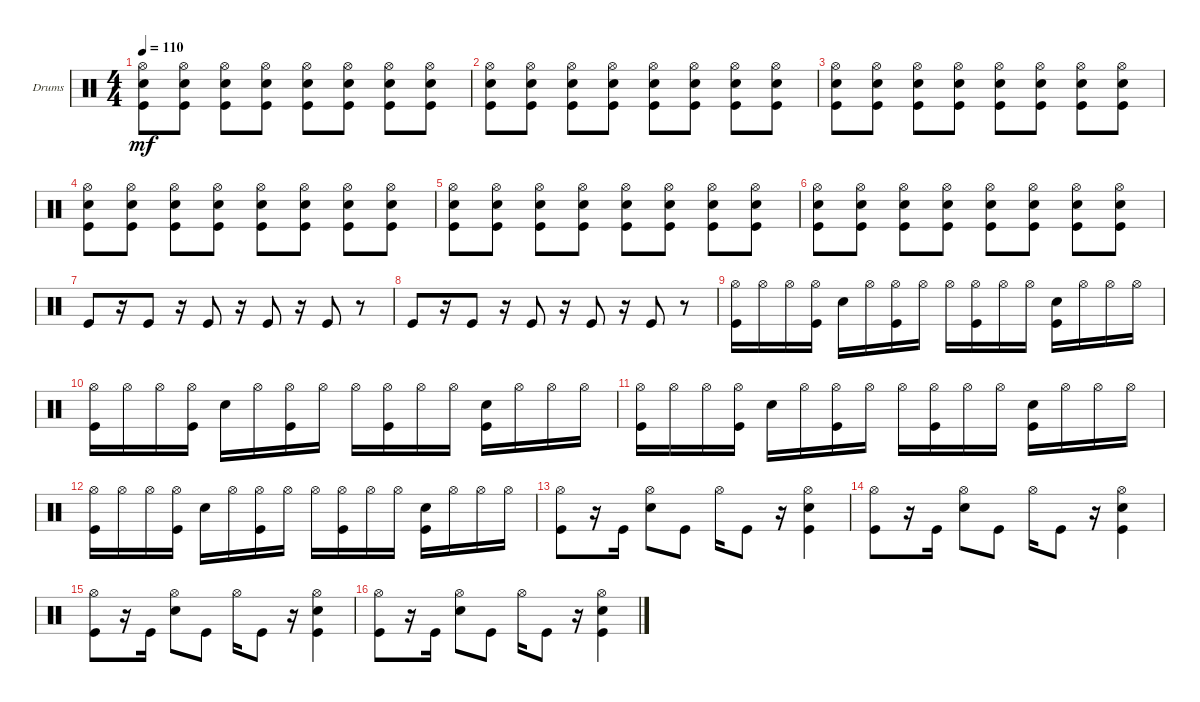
\defaultSystemsLayout 4
\bracketExtendMode groupsimilarinstruments
\firstSystemTrackNameOrientation horizontal
\otherSystemsTrackNameOrientation horizontal
\track ("Fabrizio" "Drums") {instrument percussion}
\staff {score}
\articulation defaults
\ts (4 4)
\tempo 110
\clef neutral
\ks c
("Snare (hit) 2" "Kick (hit)" "Hi-Hat (open)").8{dy mf} ("Snare (hit) 2" "Kick (hit)" "Hi-Hat (open)").8 ("Snare (hit) 2" "Kick (hit)" "Hi-Hat (open)").8 ("Snare (hit) 2" "Kick (hit)" "Hi-Hat (open)").8 ("Snare (hit) 2" "Kick (hit)" "Hi-Hat (open)").8 ("Snare (hit) 2" "Kick (hit)" "Hi-Hat (open)").8 ("Snare (hit) 2" "Kick (hit)" "Hi-Hat (open)").8 ("Snare (hit) 2" "Kick (hit)" "Hi-Hat (open)").8 |
("Snare (hit) 2" "Kick (hit)" "Hi-Hat (open)").8 ("Snare (hit) 2" "Kick (hit)" "Hi-Hat (open)").8 ("Snare (hit) 2" "Kick (hit)" "Hi-Hat (open)").8 ("Snare (hit) 2" "Kick (hit)" "Hi-Hat (open)").8 ("Snare (hit) 2" "Kick (hit)" "Hi-Hat (open)").8 ("Snare (hit) 2" "Kick (hit)" "Hi-Hat (open)").8 ("Snare (hit) 2" "Kick (hit)" "Hi-Hat (open)").8 ("Snare (hit) 2" "Kick (hit)" "Hi-Hat (open)").8 |
("Snare (hit) 2" "Kick (hit)" "Hi-Hat (open)").8 ("Snare (hit) 2" "Kick (hit)" "Hi-Hat (open)").8 ("Snare (hit) 2" "Kick (hit)" "Hi-Hat (open)").8 ("Snare (hit) 2" "Kick (hit)" "Hi-Hat (open)").8 ("Snare (hit) 2" "Kick (hit)" "Hi-Hat (open)").8 ("Snare (hit) 2" "Kick (hit)" "Hi-Hat (open)").8 ("Snare (hit) 2" "Kick (hit)" "Hi-Hat (open)").8 ("Snare (hit) 2" "Kick (hit)" "Hi-Hat (open)").8 |
("Snare (hit) 2" "Kick (hit)" "Hi-Hat (open)").8 ("Snare (hit) 2" "Kick (hit)" "Hi-Hat (open)").8 ("Snare (hit) 2" "Kick (hit)" "Hi-Hat (open)").8 ("Snare (hit) 2" "Kick (hit)" "Hi-Hat (open)").8 ("Snare (hit) 2" "Kick (hit)" "Hi-Hat (open)").8 ("Snare (hit) 2" "Kick (hit)" "Hi-Hat (open)").8 ("Snare (hit) 2" "Kick (hit)" "Hi-Hat (open)").8 ("Snare (hit) 2" "Kick (hit)" "Hi-Hat (open)").8 |
("Snare (hit) 2" "Kick (hit)" "Hi-Hat (open)").8 ("Snare (hit) 2" "Kick (hit)" "Hi-Hat (open)").8 ("Snare (hit) 2" "Kick (hit)" "Hi-Hat (open)").8 ("Snare (hit) 2" "Kick (hit)" "Hi-Hat (open)").8 ("Snare (hit) 2" "Kick (hit)" "Hi-Hat (open)").8 ("Snare (hit) 2" "Kick (hit)" "Hi-Hat (open)").8 ("Snare (hit) 2" "Kick (hit)" "Hi-Hat (open)").8 ("Snare (hit) 2" "Kick (hit)" "Hi-Hat (open)").8 |
("Snare (hit) 2" "Kick (hit)" "Hi-Hat (open)").8 ("Snare (hit) 2" "Kick (hit)" "Hi-Hat (open)").8 ("Snare (hit) 2" "Kick (hit)" "Hi-Hat (open)").8 ("Snare (hit) 2" "Kick (hit)" "Hi-Hat (open)").8 ("Snare (hit) 2" "Kick (hit)" "Hi-Hat (open)").8 ("Snare (hit) 2" "Kick (hit)" "Hi-Hat (open)").8 ("Snare (hit) 2" "Kick (hit)" "Hi-Hat (open)").8 ("Snare (hit) 2" "Kick (hit)" "Hi-Hat (open)").8 |
"Kick (hit)".8 r.16 "Kick (hit)".8 r.16 "Kick (hit)".8 r.16 "Kick (hit)".8 r.16 "Kick (hit)".8 r.8 |
"Kick (hit)".8 r.16 "Kick (hit)".8 r.16 "Kick (hit)".8 r.16 "Kick (hit)".8 r.16 "Kick (hit)".8 r.8 |
("Kick (hit)" "Hi-Hat (open)").16 "Hi-Hat (open)".16 "Hi-Hat (open)".16 ("Kick (hit)" "Hi-Hat (open)").16 "Snare (hit) 2".16 "Hi-Hat (open)".16 ("Kick (hit)" "Hi-Hat (open)").16 "Hi-Hat (open)".16 "Hi-Hat (open)".16 ("Kick (hit)" "Hi-Hat (open)").16 "Hi-Hat (open)".16 "Hi-Hat (open)".16 ("Snare (hit) 2" "Kick (hit)").16 "Hi-Hat (open)".16 "Hi-Hat (open)".16 "Hi-Hat (open)".16 |
("Kick (hit)" "Hi-Hat (open)").16 "Hi-Hat (open)".16 "Hi-Hat (open)".16 ("Kick (hit)" "Hi-Hat (open)").16 "Snare (hit) 2".16 "Hi-Hat (open)".16 ("Kick (hit)" "Hi-Hat (open)").16 "Hi-Hat (open)".16 "Hi-Hat (open)".16 ("Kick (hit)" "Hi-Hat (open)").16 "Hi-Hat (open)".16 "Hi-Hat (open)".16 ("Snare (hit) 2" "Kick (hit)").16 "Hi-Hat (open)".16 "Hi-Hat (open)".16 "Hi-Hat (open)".16 |
("Kick (hit)" "Hi-Hat (open)").16 "Hi-Hat (open)".16 "Hi-Hat (open)".16 ("Kick (hit)" "Hi-Hat (open)").16 "Snare (hit) 2".16 "Hi-Hat (open)".16 ("Kick (hit)" "Hi-Hat (open)").16 "Hi-Hat (open)".16 "Hi-Hat (open)".16 ("Kick (hit)" "Hi-Hat (open)").16 "Hi-Hat (open)".16 "Hi-Hat (open)".16 ("Snare (hit) 2" "Kick (hit)").16 "Hi-Hat (open)".16 "Hi-Hat (open)".16 "Hi-Hat (open)".16 |
("Kick (hit)" "Hi-Hat (open)").16 "Hi-Hat (open)".16 "Hi-Hat (open)".16 ("Kick (hit)" "Hi-Hat (open)").16 "Snare (hit) 2".16 "Hi-Hat (open)".16 ("Kick (hit)" "Hi-Hat (open)").16 "Hi-Hat (open)".16 "Hi-Hat (open)".16 ("Kick (hit)" "Hi-Hat (open)").16 "Hi-Hat (open)".16 "Hi-Hat (open)".16 ("Snare (hit) 2" "Kick (hit)").16 "Hi-Hat (open)".16 "Hi-Hat (open)".16 "Hi-Hat (open)".16 |
("Kick (hit)" "Hi-Hat (open)").8 r.16 "Kick (hit)".16 ("Snare (hit) 2" "Hi-Hat (open)").8 "Kick (hit)".8 "Hi-Hat (open)".16 "Kick (hit)".8 r.16 ("Snare (hit) 2" "Kick (hit)" "Hi-Hat (open)").4 |
("Kick (hit)" "Hi-Hat (open)").8 r.16 "Kick (hit)".16 ("Snare (hit) 2" "Hi-Hat (open)").8 "Kick (hit)".8 "Hi-Hat (open)".16 "Kick (hit)".8 r.16 ("Snare (hit) 2" "Kick (hit)" "Hi-Hat (open)").4 |
("Kick (hit)" "Hi-Hat (open)").8 r.16 "Kick (hit)".16 ("Snare (hit) 2" "Hi-Hat (open)").8 "Kick (hit)".8 "Hi-Hat (open)".16 "Kick (hit)".8 r.16 ("Snare (hit) 2" "Kick (hit)" "Hi-Hat (open)").4 |
("Kick (hit)" "Hi-Hat (open)").8 r.16 "Kick (hit)".16 ("Snare (hit) 2" "Hi-Hat (open)").8 "Kick (hit)".8 "Hi-Hat (open)".16 "Kick (hit)".8 r.16 ("Snare (hit) 2" "Kick (hit)" "Hi-Hat (open)").4
